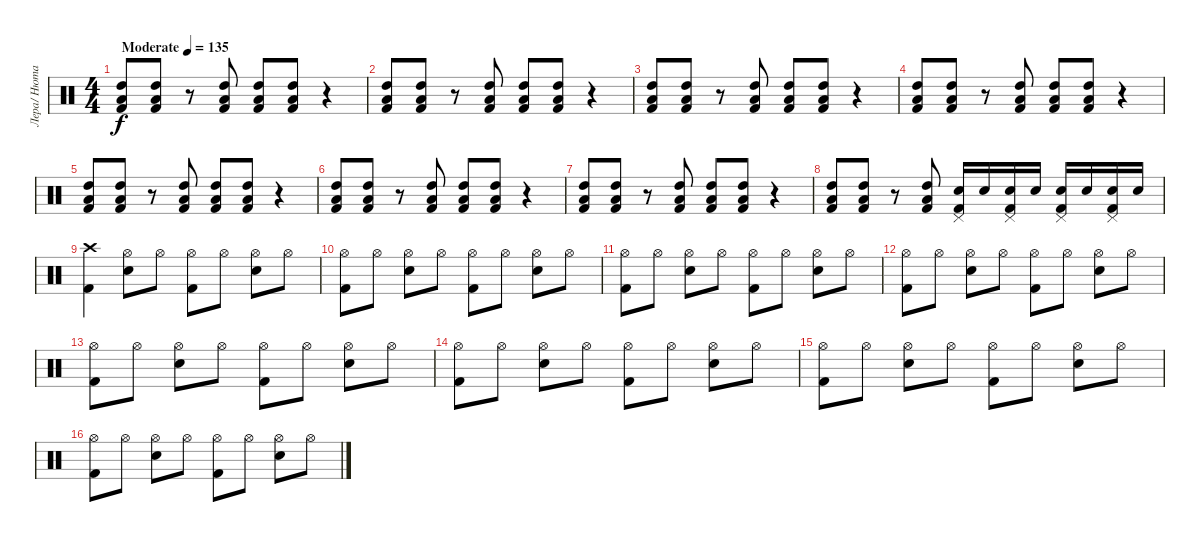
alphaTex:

\track ("Лера/ Нюта" "Лера/ Нюта") {instrument percussion}
\staff {score}
\articulation defaults
\ts (4 4)
\tempo (135 "Moderate")
\clef neutral
\ks c
("Low Tom (hit)" "High Tom (hit)" "Kick (hit) 2").8{dy f} ("Low Tom (hit)" "High Tom (hit)" "Kick (hit) 2").8 r.8 ("Low Tom (hit)" "High Tom (hit)" "Kick (hit) 2").8 ("Low Tom (hit)" "High Tom (hit)" "Kick (hit) 2").8 ("Low Tom (hit)" "High Tom (hit)" "Kick (hit) 2").8 r.4 |
("Low Tom (hit)" "High Tom (hit)" "Kick (hit) 2").8 ("Low Tom (hit)" "High Tom (hit)" "Kick (hit) 2").8 r.8 ("Low Tom (hit)" "High Tom (hit)" "Kick (hit) 2").8 ("Low Tom (hit)" "High Tom (hit)" "Kick (hit) 2").8 ("Low Tom (hit)" "High Tom (hit)" "Kick (hit) 2").8 r.4 |
("Low Tom (hit)" "High Tom (hit)" "Kick (hit) 2").8 ("Low Tom (hit)" "High Tom (hit)" "Kick (hit) 2").8 r.8 ("Low Tom (hit)" "High Tom (hit)" "Kick (hit) 2").8 ("Low Tom (hit)" "High Tom (hit)" "Kick (hit) 2").8 ("Low Tom (hit)" "High Tom (hit)" "Kick (hit) 2").8 r.4 |
("Low Tom (hit)" "High Tom (hit)" "Kick (hit) 2").8 ("Low Tom (hit)" "High Tom (hit)" "Kick (hit) 2").8 r.8 ("Low Tom (hit)" "High Tom (hit)" "Kick (hit) 2").8 ("Low Tom (hit)" "High Tom (hit)" "Kick (hit) 2").8 ("Low Tom (hit)" "High Tom (hit)" "Kick (hit) 2").8 r.4 |
("Low Tom (hit)" "High Tom (hit)" "Kick (hit) 2").8 ("Low Tom (hit)" "High Tom (hit)" "Kick (hit) 2").8 r.8 ("Low Tom (hit)" "High Tom (hit)" "Kick (hit) 2").8 ("Low Tom (hit)" "High Tom (hit)" "Kick (hit) 2").8 ("Low Tom (hit)" "High Tom (hit)" "Kick (hit) 2").8 r.4 |
("Low Tom (hit)" "High Tom (hit)" "Kick (hit) 2").8 ("Low Tom (hit)" "High Tom (hit)" "Kick (hit) 2").8 r.8 ("Low Tom (hit)" "High Tom (hit)" "Kick (hit) 2").8 ("Low Tom (hit)" "High Tom (hit)" "Kick (hit) 2").8 ("Low Tom (hit)" "High Tom (hit)" "Kick (hit) 2").8 r.4 |
("Low Tom (hit)" "High Tom (hit)" "Kick (hit) 2").8 ("Low Tom (hit)" "High Tom (hit)" "Kick (hit) 2").8 r.8 ("Low Tom (hit)" "High Tom (hit)" "Kick (hit) 2").8 ("Low Tom (hit)" "High Tom (hit)" "Kick (hit) 2").8 ("Low Tom (hit)" "High Tom (hit)" "Kick (hit) 2").8 r.4 |
("Low Tom (hit)" "High Tom (hit)" "Kick (hit) 2").8 ("Low Tom (hit)" "High Tom (hit)" "Kick (hit) 2").8 r.8 ("Low Tom (hit)" "High Tom (hit)" "Kick (hit) 2").8 ("Electric Snare (hit)" "Kick (hit) 2" "Pedal Hi-Hat (hit)").16 "Electric Snare (hit)".16 ("Electric Snare (hit)" "Kick (hit) 2" "Pedal Hi-Hat (hit)").16 "Electric Snare (hit)".16 ("Electric Snare (hit)" "Kick (hit) 2" "Pedal Hi-Hat (hit)").16 "Electric Snare (hit)".16 ("Electric Snare (hit)" "Kick (hit) 2" "Pedal Hi-Hat (hit)").16 "Electric Snare (hit)".16 |
("Crash high (hit)" "Kick (hit) 2").4 ("Hi-Hat (open)" "Electric Snare (hit)").8 "Hi-Hat (open)".8 ("Hi-Hat (open)" "Kick (hit) 2").8 "Hi-Hat (open)".8 ("Hi-Hat (open)" "Electric Snare (hit)").8 "Hi-Hat (open)".8 |
("Hi-Hat (open)" "Kick (hit) 2").8 "Hi-Hat (open)".8 ("Hi-Hat (open)" "Electric Snare (hit)").8 "Hi-Hat (open)".8 ("Hi-Hat (open)" "Kick (hit) 2").8 "Hi-Hat (open)".8 ("Hi-Hat (open)" "Electric Snare (hit)").8 "Hi-Hat (open)".8 |
("Hi-Hat (open)" "Kick (hit) 2").8 "Hi-Hat (open)".8 ("Hi-Hat (open)" "Electric Snare (hit)").8 "Hi-Hat (open)".8 ("Hi-Hat (open)" "Kick (hit) 2").8 "Hi-Hat (open)".8 ("Hi-Hat (open)" "Electric Snare (hit)").8 "Hi-Hat (open)".8 |
("Hi-Hat (open)" "Kick (hit) 2").8 "Hi-Hat (open)".8 ("Hi-Hat (open)" "Electric Snare (hit)").8 "Hi-Hat (open)".8 ("Hi-Hat (open)" "Kick (hit) 2").8 "Hi-Hat (open)".8 ("Hi-Hat (open)" "Electric Snare (hit)").8 "Hi-Hat (open)".8 |
("Hi-Hat (open)" "Kick (hit) 2").8 "Hi-Hat (open)".8 ("Hi-Hat (open)" "Electric Snare (hit)").8 "Hi-Hat (open)".8 ("Hi-Hat (open)" "Kick (hit) 2").8 "Hi-Hat (open)".8 ("Hi-Hat (open)" "Electric Snare (hit)").8 "Hi-Hat (open)".8 |
("Hi-Hat (open)" "Kick (hit) 2").8 "Hi-Hat (open)".8 ("Hi-Hat (open)" "Electric Snare (hit)").8 "Hi-Hat (open)".8 ("Hi-Hat (open)" "Kick (hit) 2").8 "Hi-Hat (open)".8 ("Hi-Hat (open)" "Electric Snare (hit)").8 "Hi-Hat (open)".8 |
("Hi-Hat (open)" "Kick (hit) 2").8 "Hi-Hat (open)".8 ("Hi-Hat (open)" "Electric Snare (hit)").8 "Hi-Hat (open)".8 ("Hi-Hat (open)" "Kick (hit) 2").8 "Hi-Hat (open)".8 ("Hi-Hat (open)" "Electric Snare (hit)").8 "Hi-Hat (open)".8 |
("Hi-Hat (open)" "Kick (hit) 2").8 "Hi-Hat (open)".8 ("Hi-Hat (open)" "Electric Snare (hit)").8 "Hi-Hat (open)".8 ("Hi-Hat (open)" "Kick (hit) 2").8 "Hi-Hat (open)".8 ("Hi-Hat (open)" "Electric Snare (hit)").8 "Hi-Hat (open)".8
